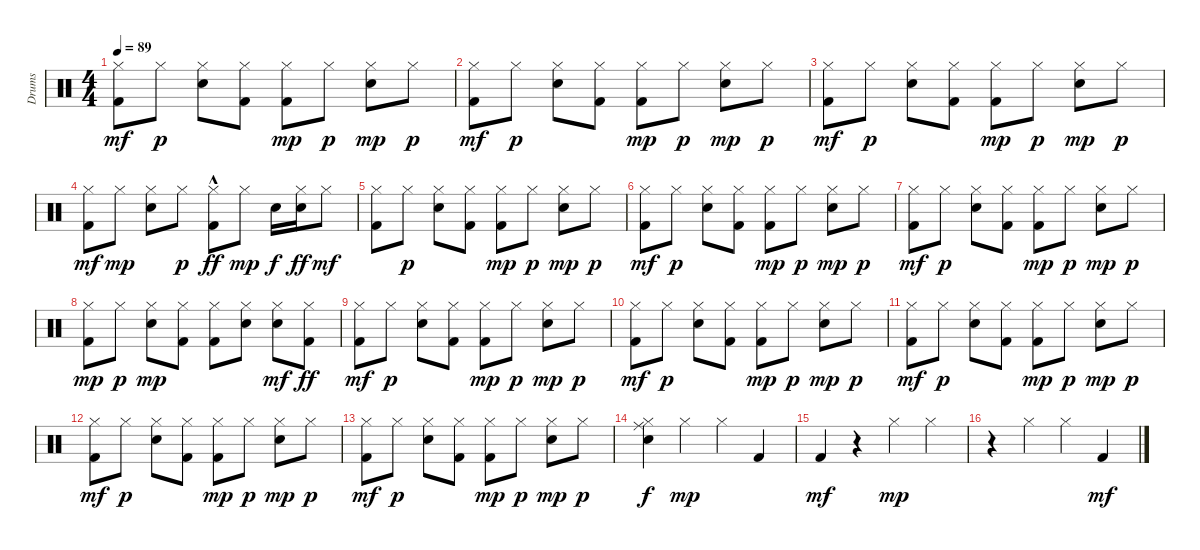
\track ("Drums" "Drums") {instrument percussion}
\staff {score}
\articulation defaults
\ts (4 4)
\tempo 89
\clef neutral
\ks c
("Hi-Hat (closed)" "Kick (hit) 2").8{dy mf} "Hi-Hat (closed)".8{dy p} ("Snare (hit) 2" "Hi-Hat (closed)").8 ("Kick (hit) 2" "Hi-Hat (closed)").8 ("Kick (hit) 2" "Hi-Hat (closed)").8{dy mp} "Hi-Hat (closed)".8{dy p} ("Snare (hit) 2" "Hi-Hat (closed)").8{dy mp} "Hi-Hat (closed)".8{dy p} |
("Hi-Hat (closed)" "Kick (hit) 2").8{dy mf} "Hi-Hat (closed)".8{dy p} ("Snare (hit) 2" "Hi-Hat (closed)").8 ("Kick (hit) 2" "Hi-Hat (closed)").8 ("Kick (hit) 2" "Hi-Hat (closed)").8{dy mp} "Hi-Hat (closed)".8{dy p} ("Snare (hit) 2" "Hi-Hat (closed)").8{dy mp} "Hi-Hat (closed)".8{dy p} |
("Hi-Hat (closed)" "Kick (hit) 2").8{dy mf} "Hi-Hat (closed)".8{dy p} ("Snare (hit) 2" "Hi-Hat (closed)").8 ("Kick (hit) 2" "Hi-Hat (closed)").8 ("Kick (hit) 2" "Hi-Hat (closed)").8{dy mp} "Hi-Hat (closed)".8{dy p} ("Snare (hit) 2" "Hi-Hat (closed)").8{dy mp} "Hi-Hat (closed)".8{dy p} |
("Hi-Hat (closed)" "Kick (hit) 2").8{dy mf} "Hi-Hat (closed)".8{dy mp} ("Snare (hit) 2" "Hi-Hat (closed)").8 "Hi-Hat (closed)".8{dy p} ("Hi-Hat (closed)" "Kick (hit) 2"{hac}).8{dy ff} "Hi-Hat (closed)".8{dy mp} "Snare (hit) 2".16{dy f} ("Hi-Hat (closed)" "Snare (hit) 2").16{dy ff} "Hi-Hat (closed)".8{dy mf} |
("Hi-Hat (closed)" "Kick (hit) 2").8 "Hi-Hat (closed)".8{dy p} ("Snare (hit) 2" "Hi-Hat (closed)").8 ("Kick (hit) 2" "Hi-Hat (closed)").8 ("Kick (hit) 2" "Hi-Hat (closed)").8{dy mp} "Hi-Hat (closed)".8{dy p} ("Snare (hit) 2" "Hi-Hat (closed)").8{dy mp} "Hi-Hat (closed)".8{dy p} |
("Hi-Hat (closed)" "Kick (hit) 2").8{dy mf} "Hi-Hat (closed)".8{dy p} ("Snare (hit) 2" "Hi-Hat (closed)").8 ("Kick (hit) 2" "Hi-Hat (closed)").8 ("Kick (hit) 2" "Hi-Hat (closed)").8{dy mp} "Hi-Hat (closed)".8{dy p} ("Snare (hit) 2" "Hi-Hat (closed)").8{dy mp} "Hi-Hat (closed)".8{dy p} |
("Hi-Hat (closed)" "Kick (hit) 2").8{dy mf} "Hi-Hat (closed)".8{dy p} ("Snare (hit) 2" "Hi-Hat (closed)").8 ("Kick (hit) 2" "Hi-Hat (closed)").8 ("Kick (hit) 2" "Hi-Hat (closed)").8{dy mp} "Hi-Hat (closed)".8{dy p} ("Snare (hit) 2" "Hi-Hat (closed)").8{dy mp} "Hi-Hat (closed)".8{dy p} |
("Kick (hit) 2" "Hi-Hat (closed)").8{dy mp} "Hi-Hat (closed)".8{dy p} ("Snare (hit) 2" "Hi-Hat (closed)").8{dy mp} ("Kick (hit) 2" "Hi-Hat (closed)").8 ("Kick (hit) 2" "Hi-Hat (closed)").8 ("Snare (hit) 2" "Hi-Hat (closed)").8 ("Snare (hit) 2" "Hi-Hat (closed)").8{dy mf} ("Hi-Hat (closed)" "Kick (hit) 2").8{dy ff} |
("Hi-Hat (closed)" "Kick (hit) 2").8{dy mf} "Hi-Hat (closed)".8{dy p} ("Snare (hit) 2" "Hi-Hat (closed)").8 ("Kick (hit) 2" "Hi-Hat (closed)").8 ("Kick (hit) 2" "Hi-Hat (closed)").8{dy mp} "Hi-Hat (closed)".8{dy p} ("Snare (hit) 2" "Hi-Hat (closed)").8{dy mp} "Hi-Hat (closed)".8{dy p} |
("Hi-Hat (closed)" "Kick (hit) 2").8{dy mf} "Hi-Hat (closed)".8{dy p} ("Snare (hit) 2" "Hi-Hat (closed)").8 ("Kick (hit) 2" "Hi-Hat (closed)").8 ("Kick (hit) 2" "Hi-Hat (closed)").8{dy mp} "Hi-Hat (closed)".8{dy p} ("Snare (hit) 2" "Hi-Hat (closed)").8{dy mp} "Hi-Hat (closed)".8{dy p} |
("Hi-Hat (closed)" "Kick (hit) 2").8{dy mf} "Hi-Hat (closed)".8{dy p} ("Snare (hit) 2" "Hi-Hat (closed)").8 ("Kick (hit) 2" "Hi-Hat (closed)").8 ("Kick (hit) 2" "Hi-Hat (closed)").8{dy mp} "Hi-Hat (closed)".8{dy p} ("Snare (hit) 2" "Hi-Hat (closed)").8{dy mp} "Hi-Hat (closed)".8{dy p} |
("Hi-Hat (closed)" "Kick (hit) 2").8{dy mf} "Hi-Hat (closed)".8{dy p} ("Snare (hit) 2" "Hi-Hat (closed)").8 ("Kick (hit) 2" "Hi-Hat (closed)").8 ("Kick (hit) 2" "Hi-Hat (closed)").8{dy mp} "Hi-Hat (closed)".8{dy p} ("Snare (hit) 2" "Hi-Hat (closed)").8{dy mp} "Hi-Hat (closed)".8{dy p} |
("Hi-Hat (closed)" "Kick (hit) 2").8{dy mf} "Hi-Hat (closed)".8{dy p} ("Snare (hit) 2" "Hi-Hat (closed)").8 ("Kick (hit) 2" "Hi-Hat (closed)").8 ("Kick (hit) 2" "Hi-Hat (closed)").8{dy mp} "Hi-Hat (closed)".8{dy p} ("Snare (hit) 2" "Hi-Hat (closed)").8{dy mp} "Hi-Hat (closed)".8{dy p} |
("Hi-Hat (closed)" "Ride (middle)" "Snare (hit) 2").4{dy f} "Hi-Hat (closed)".4{dy mp} "Hi-Hat (closed)".4 "Kick (hit) 2".4 |
"Kick (hit) 2".4{dy mf} r.4 "Hi-Hat (closed)".4{dy mp} "Hi-Hat (closed)".4 |
r.4 "Hi-Hat (closed)".4 "Hi-Hat (closed)".4 "Kick (hit) 2".4{dy mf}
